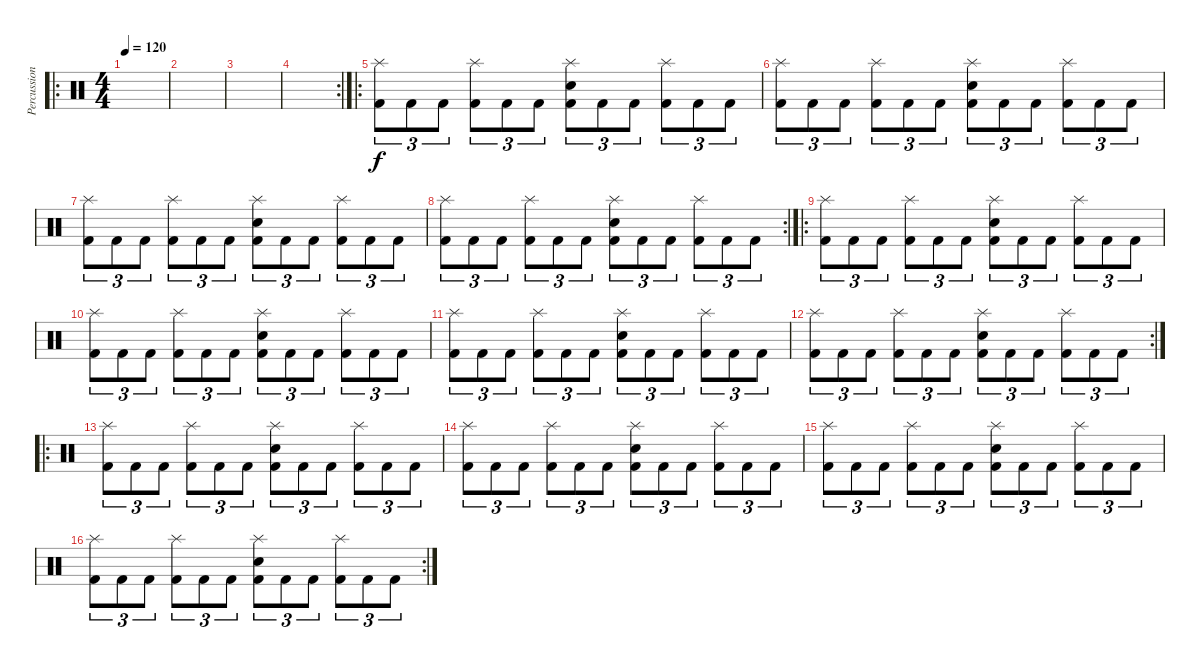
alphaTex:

\track ("Percussion" "Percussion") {instrument percussion}
\staff {score}
\articulation defaults
\ro
\ts (4 4)
\tempo 120
\clef neutral
\ks c
|
|
|
\rc 2
|
\ro
("Splash (hit)" "Kick (hit) 2").8{tu (3 2)} "Kick (hit) 2".8{tu (3 2)} "Kick (hit) 2".8{tu (3 2)} ("Splash (hit)" "Kick (hit) 2").8{tu (3 2)} "Kick (hit) 2".8{tu (3 2)} "Kick (hit) 2".8{tu (3 2)} ("Splash (hit)" "Snare (hit) 2" "Kick (hit) 2").8{tu (3 2)} "Kick (hit) 2".8{tu (3 2)} "Kick (hit) 2".8{tu (3 2)} ("Splash (hit)" "Kick (hit) 2").8{tu (3 2)} "Kick (hit) 2".8{tu (3 2)} "Kick (hit) 2".8{tu (3 2)} |
("Splash (hit)" "Kick (hit) 2").8{tu (3 2)} "Kick (hit) 2".8{tu (3 2)} "Kick (hit) 2".8{tu (3 2)} ("Splash (hit)" "Kick (hit) 2").8{tu (3 2)} "Kick (hit) 2".8{tu (3 2)} "Kick (hit) 2".8{tu (3 2)} ("Splash (hit)" "Snare (hit) 2" "Kick (hit) 2").8{tu (3 2)} "Kick (hit) 2".8{tu (3 2)} "Kick (hit) 2".8{tu (3 2)} ("Splash (hit)" "Kick (hit) 2").8{tu (3 2)} "Kick (hit) 2".8{tu (3 2)} "Kick (hit) 2".8{tu (3 2)} |
("Splash (hit)" "Kick (hit) 2").8{tu (3 2)} "Kick (hit) 2".8{tu (3 2)} "Kick (hit) 2".8{tu (3 2)} ("Splash (hit)" "Kick (hit) 2").8{tu (3 2)} "Kick (hit) 2".8{tu (3 2)} "Kick (hit) 2".8{tu (3 2)} ("Splash (hit)" "Snare (hit) 2" "Kick (hit) 2").8{tu (3 2)} "Kick (hit) 2".8{tu (3 2)} "Kick (hit) 2".8{tu (3 2)} ("Splash (hit)" "Kick (hit) 2").8{tu (3 2)} "Kick (hit) 2".8{tu (3 2)} "Kick (hit) 2".8{tu (3 2)} |
\rc 2
("Splash (hit)" "Kick (hit) 2").8{tu (3 2)} "Kick (hit) 2".8{tu (3 2)} "Kick (hit) 2".8{tu (3 2)} ("Splash (hit)" "Kick (hit) 2").8{tu (3 2)} "Kick (hit) 2".8{tu (3 2)} "Kick (hit) 2".8{tu (3 2)} ("Splash (hit)" "Snare (hit) 2" "Kick (hit) 2").8{tu (3 2)} "Kick (hit) 2".8{tu (3 2)} "Kick (hit) 2".8{tu (3 2)} ("Splash (hit)" "Kick (hit) 2").8{tu (3 2)} "Kick (hit) 2".8{tu (3 2)} "Kick (hit) 2".8{tu (3 2)} |
\ro
("Splash (hit)" "Kick (hit) 2").8{tu (3 2)} "Kick (hit) 2".8{tu (3 2)} "Kick (hit) 2".8{tu (3 2)} ("Splash (hit)" "Kick (hit) 2").8{tu (3 2)} "Kick (hit) 2".8{tu (3 2)} "Kick (hit) 2".8{tu (3 2)} ("Splash (hit)" "Snare (hit) 2" "Kick (hit) 2").8{tu (3 2)} "Kick (hit) 2".8{tu (3 2)} "Kick (hit) 2".8{tu (3 2)} ("Splash (hit)" "Kick (hit) 2").8{tu (3 2)} "Kick (hit) 2".8{tu (3 2)} "Kick (hit) 2".8{tu (3 2)} |
("Splash (hit)" "Kick (hit) 2").8{tu (3 2)} "Kick (hit) 2".8{tu (3 2)} "Kick (hit) 2".8{tu (3 2)} ("Splash (hit)" "Kick (hit) 2").8{tu (3 2)} "Kick (hit) 2".8{tu (3 2)} "Kick (hit) 2".8{tu (3 2)} ("Splash (hit)" "Snare (hit) 2" "Kick (hit) 2").8{tu (3 2)} "Kick (hit) 2".8{tu (3 2)} "Kick (hit) 2".8{tu (3 2)} ("Splash (hit)" "Kick (hit) 2").8{tu (3 2)} "Kick (hit) 2".8{tu (3 2)} "Kick (hit) 2".8{tu (3 2)} |
("Splash (hit)" "Kick (hit) 2").8{tu (3 2)} "Kick (hit) 2".8{tu (3 2)} "Kick (hit) 2".8{tu (3 2)} ("Splash (hit)" "Kick (hit) 2").8{tu (3 2)} "Kick (hit) 2".8{tu (3 2)} "Kick (hit) 2".8{tu (3 2)} ("Splash (hit)" "Snare (hit) 2" "Kick (hit) 2").8{tu (3 2)} "Kick (hit) 2".8{tu (3 2)} "Kick (hit) 2".8{tu (3 2)} ("Splash (hit)" "Kick (hit) 2").8{tu (3 2)} "Kick (hit) 2".8{tu (3 2)} "Kick (hit) 2".8{tu (3 2)} |
\rc 2
("Splash (hit)" "Kick (hit) 2").8{tu (3 2)} "Kick (hit) 2".8{tu (3 2)} "Kick (hit) 2".8{tu (3 2)} ("Splash (hit)" "Kick (hit) 2").8{tu (3 2)} "Kick (hit) 2".8{tu (3 2)} "Kick (hit) 2".8{tu (3 2)} ("Splash (hit)" "Snare (hit) 2" "Kick (hit) 2").8{tu (3 2)} "Kick (hit) 2".8{tu (3 2)} "Kick (hit) 2".8{tu (3 2)} ("Splash (hit)" "Kick (hit) 2").8{tu (3 2)} "Kick (hit) 2".8{tu (3 2)} "Kick (hit) 2".8{tu (3 2)} |
\ro
("Splash (hit)" "Kick (hit) 2").8{tu (3 2)} "Kick (hit) 2".8{tu (3 2)} "Kick (hit) 2".8{tu (3 2)} ("Splash (hit)" "Kick (hit) 2").8{tu (3 2)} "Kick (hit) 2".8{tu (3 2)} "Kick (hit) 2".8{tu (3 2)} ("Splash (hit)" "Snare (hit) 2" "Kick (hit) 2").8{tu (3 2)} "Kick (hit) 2".8{tu (3 2)} "Kick (hit) 2".8{tu (3 2)} ("Splash (hit)" "Kick (hit) 2").8{tu (3 2)} "Kick (hit) 2".8{tu (3 2)} "Kick (hit) 2".8{tu (3 2)} |
("Splash (hit)" "Kick (hit) 2").8{tu (3 2)} "Kick (hit) 2".8{tu (3 2)} "Kick (hit) 2".8{tu (3 2)} ("Splash (hit)" "Kick (hit) 2").8{tu (3 2)} "Kick (hit) 2".8{tu (3 2)} "Kick (hit) 2".8{tu (3 2)} ("Splash (hit)" "Snare (hit) 2" "Kick (hit) 2").8{tu (3 2)} "Kick (hit) 2".8{tu (3 2)} "Kick (hit) 2".8{tu (3 2)} ("Splash (hit)" "Kick (hit) 2").8{tu (3 2)} "Kick (hit) 2".8{tu (3 2)} "Kick (hit) 2".8{tu (3 2)} |
("Splash (hit)" "Kick (hit) 2").8{tu (3 2)} "Kick (hit) 2".8{tu (3 2)} "Kick (hit) 2".8{tu (3 2)} ("Splash (hit)" "Kick (hit) 2").8{tu (3 2)} "Kick (hit) 2".8{tu (3 2)} "Kick (hit) 2".8{tu (3 2)} ("Splash (hit)" "Snare (hit) 2" "Kick (hit) 2").8{tu (3 2)} "Kick (hit) 2".8{tu (3 2)} "Kick (hit) 2".8{tu (3 2)} ("Splash (hit)" "Kick (hit) 2").8{tu (3 2)} "Kick (hit) 2".8{tu (3 2)} "Kick (hit) 2".8{tu (3 2)} |
\rc 2
("Splash (hit)" "Kick (hit) 2").8{tu (3 2)} "Kick (hit) 2".8{tu (3 2)} "Kick (hit) 2".8{tu (3 2)} ("Splash (hit)" "Kick (hit) 2").8{tu (3 2)} "Kick (hit) 2".8{tu (3 2)} "Kick (hit) 2".8{tu (3 2)} ("Splash (hit)" "Snare (hit) 2" "Kick (hit) 2").8{tu (3 2)} "Kick (hit) 2".8{tu (3 2)} "Kick (hit) 2".8{tu (3 2)} ("Splash (hit)" "Kick (hit) 2").8{tu (3 2)} "Kick (hit) 2".8{tu (3 2)} "Kick (hit) 2".8{tu (3 2)}
